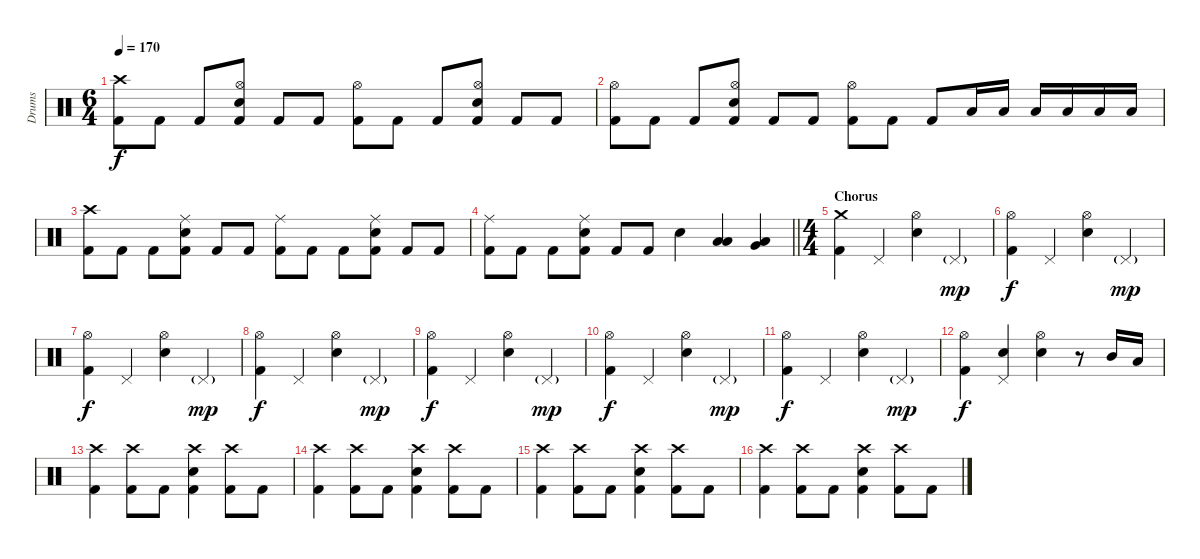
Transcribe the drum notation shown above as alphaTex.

\track ("Drums" "Drums") {instrument percussion}
\staff {score}
\articulation defaults
\ts (6 4)
\tempo 170
\clef neutral
\ks c
("Crash high (hit)" "Kick (hit) 2").8{dy f} "Kick (hit) 2".8 "Kick (hit) 2".8 ("Hi-Hat (open)" "Electric Snare (hit)" "Kick (hit) 2").8 "Kick (hit) 2".8 "Kick (hit) 2".8 ("Hi-Hat (open)" "Kick (hit) 2").8 "Kick (hit) 2".8 "Kick (hit) 2".8 ("Hi-Hat (open)" "Electric Snare (hit)" "Kick (hit) 2").8 "Kick (hit) 2".8 "Kick (hit) 2".8 |
("Hi-Hat (open)" "Kick (hit) 2").8 "Kick (hit) 2".8 "Kick (hit) 2".8 ("Hi-Hat (open)" "Electric Snare (hit)" "Kick (hit) 2").8 "Kick (hit) 2".8 "Kick (hit) 2".8 ("Hi-Hat (open)" "Kick (hit) 2").8 "Kick (hit) 2".8 "Kick (hit) 2".8 "Low Tom (hit)".16 "Low Tom (hit)".16 "Low Tom (hit)".16 "Low Tom (hit)".16 "Low Tom (hit)".16 "Low Tom (hit)".16 |
("Crash high (hit)" "Kick (hit) 2").8 "Kick (hit) 2".8 "Kick (hit) 2".8 ("Ride (middle)" "Electric Snare (hit)" "Kick (hit) 2").8 "Kick (hit) 2".8 "Kick (hit) 2".8 ("Ride (middle)" "Kick (hit) 2").8 "Kick (hit) 2".8 "Kick (hit) 2".8 ("Ride (middle)" "Electric Snare (hit)" "Kick (hit) 2").8 "Kick (hit) 2".8 "Kick (hit) 2".8 |
\barLineRight lightlight
("Ride (middle)" "Kick (hit) 2").8 "Kick (hit) 2".8 "Kick (hit) 2".8 ("Ride (middle)" "Electric Snare (hit)" "Kick (hit) 2").8 "Kick (hit) 2".8 "Kick (hit) 2".8 "Electric Snare (hit)".4 ("Low Tom (hit)" "Low Floor Tom (hit)").4 ("Very Low Tom (hit)" "Low Floor Tom (hit)").4 |
\ts (4 4)
\section ("" "Chorus")
("Crash medium (hit)" "Kick (hit) 2").4 "Pedal Hi-Hat (hit)".4 ("Hi-Hat (open)" "Electric Snare (hit)").4 "Pedal Hi-Hat (hit)"{g}.4{dy mp} |
("Hi-Hat (open)" "Kick (hit) 2").4{dy f} "Pedal Hi-Hat (hit)".4 ("Hi-Hat (open)" "Electric Snare (hit)").4 "Pedal Hi-Hat (hit)"{g}.4{dy mp} |
("Hi-Hat (open)" "Kick (hit) 2").4{dy f} "Pedal Hi-Hat (hit)".4 ("Hi-Hat (open)" "Electric Snare (hit)").4 "Pedal Hi-Hat (hit)"{g}.4{dy mp} |
("Hi-Hat (open)" "Kick (hit) 2").4{dy f} "Pedal Hi-Hat (hit)".4 ("Hi-Hat (open)" "Electric Snare (hit)").4 "Pedal Hi-Hat (hit)"{g}.4{dy mp} |
("Hi-Hat (open)" "Kick (hit) 2").4{dy f} "Pedal Hi-Hat (hit)".4 ("Hi-Hat (open)" "Electric Snare (hit)").4 "Pedal Hi-Hat (hit)"{g}.4{dy mp} |
("Hi-Hat (open)" "Kick (hit) 2").4{dy f} "Pedal Hi-Hat (hit)".4 ("Hi-Hat (open)" "Electric Snare (hit)").4 "Pedal Hi-Hat (hit)"{g}.4{dy mp} |
("Hi-Hat (open)" "Kick (hit) 2").4{dy f} "Pedal Hi-Hat (hit)".4 ("Hi-Hat (open)" "Electric Snare (hit)").4 "Pedal Hi-Hat (hit)"{g}.4{dy mp} |
("Hi-Hat (open)" "Kick (hit) 2").4{dy f} ("Pedal Hi-Hat (hit)" "Electric Snare (hit)").4 ("Hi-Hat (open)" "Electric Snare (hit)").4 r.8 "Mid Tom (hit)".16 "Low Tom (hit)".16 |
("Crash high (hit)" "Kick (hit) 2").4 ("Crash high (hit)" "Kick (hit) 2").8 "Kick (hit) 2".8 ("Crash high (hit)" "Electric Snare (hit)" "Kick (hit) 2").4 ("Crash high (hit)" "Kick (hit) 2").8 "Kick (hit) 2".8 |
("Crash high (hit)" "Kick (hit) 2").4 ("Crash high (hit)" "Kick (hit) 2").8 "Kick (hit) 2".8 ("Crash high (hit)" "Electric Snare (hit)" "Kick (hit) 2").4 ("Crash high (hit)" "Kick (hit) 2").8 "Kick (hit) 2".8 |
("Crash high (hit)" "Kick (hit) 2").4 ("Crash high (hit)" "Kick (hit) 2").8 "Kick (hit) 2".8 ("Crash high (hit)" "Electric Snare (hit)" "Kick (hit) 2").4 ("Crash high (hit)" "Kick (hit) 2").8 "Kick (hit) 2".8 |
("Crash high (hit)" "Kick (hit) 2").4 ("Crash high (hit)" "Kick (hit) 2").8 "Kick (hit) 2".8 ("Crash high (hit)" "Electric Snare (hit)" "Kick (hit) 2").4 ("Crash high (hit)" "Kick (hit) 2").8 "Kick (hit) 2".8
